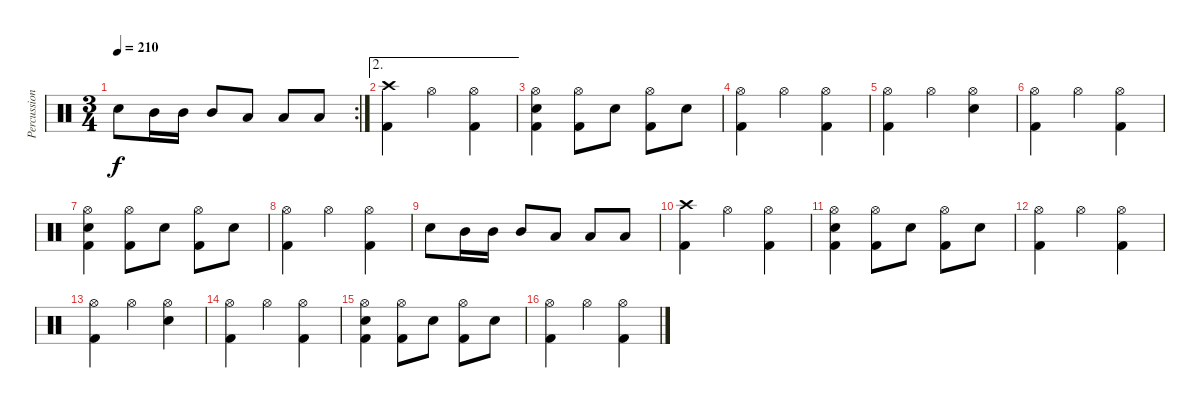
\track ("Percussion" "Percussion") {instrument percussion}
\staff {score}
\articulation defaults
\rc 2
\ts (3 4)
\tempo 210
\clef neutral
\ks c "Electric Snare (hit)".8{dy f} "Mid Tom (hit)".16 "Mid Tom (hit)".16 "Mid Tom (hit)".8 "Low Tom (hit)".8 "Low Tom (hit)".8 "Low Tom (hit)".8
|
\ae 2
("Crash high (hit)" "Kick (hit) 2").4 "Hi-Hat (open)".4 ("Hi-Hat (open)" "Kick (hit) 2").4 |
("Hi-Hat (open)" "Electric Snare (hit)" "Kick (hit) 2").4 ("Hi-Hat (open)" "Kick (hit) 2").8 "Electric Snare (hit)".8 ("Hi-Hat (open)" "Kick (hit) 2").8 "Electric Snare (hit)".8 |
("Hi-Hat (open)" "Kick (hit) 2").4 "Hi-Hat (open)".4 ("Hi-Hat (open)" "Kick (hit) 2").4 |
("Hi-Hat (open)" "Kick (hit) 2").4 "Hi-Hat (open)".4 ("Hi-Hat (open)" "Electric Snare (hit)").4 |
("Hi-Hat (open)" "Kick (hit) 2").4 "Hi-Hat (open)".4 ("Hi-Hat (open)" "Kick (hit) 2").4 |
("Hi-Hat (open)" "Electric Snare (hit)" "Kick (hit) 2").4 ("Hi-Hat (open)" "Kick (hit) 2").8 "Electric Snare (hit)".8 ("Hi-Hat (open)" "Kick (hit) 2").8 "Electric Snare (hit)".8 |
("Hi-Hat (open)" "Kick (hit) 2").4 "Hi-Hat (open)".4 ("Hi-Hat (open)" "Kick (hit) 2").4 |
"Electric Snare (hit)".8 "Mid Tom (hit)".16 "Mid Tom (hit)".16 "Mid Tom (hit)".8 "Low Tom (hit)".8 "Low Tom (hit)".8 "Low Tom (hit)".8 |
("Crash high (hit)" "Kick (hit) 2").4 "Hi-Hat (open)".4 ("Hi-Hat (open)" "Kick (hit) 2").4 |
("Hi-Hat (open)" "Electric Snare (hit)" "Kick (hit) 2").4 ("Hi-Hat (open)" "Kick (hit) 2").8 "Electric Snare (hit)".8 ("Hi-Hat (open)" "Kick (hit) 2").8 "Electric Snare (hit)".8 |
("Hi-Hat (open)" "Kick (hit) 2").4 "Hi-Hat (open)".4 ("Hi-Hat (open)" "Kick (hit) 2").4 |
("Hi-Hat (open)" "Kick (hit) 2").4 "Hi-Hat (open)".4 ("Hi-Hat (open)" "Electric Snare (hit)").4 |
("Hi-Hat (open)" "Kick (hit) 2").4 "Hi-Hat (open)".4 ("Hi-Hat (open)" "Kick (hit) 2").4 |
("Hi-Hat (open)" "Electric Snare (hit)" "Kick (hit) 2").4 ("Hi-Hat (open)" "Kick (hit) 2").8 "Electric Snare (hit)".8 ("Hi-Hat (open)" "Kick (hit) 2").8 "Electric Snare (hit)".8 |
("Hi-Hat (open)" "Kick (hit) 2").4 "Hi-Hat (open)".4 ("Hi-Hat (open)" "Kick (hit) 2").4
